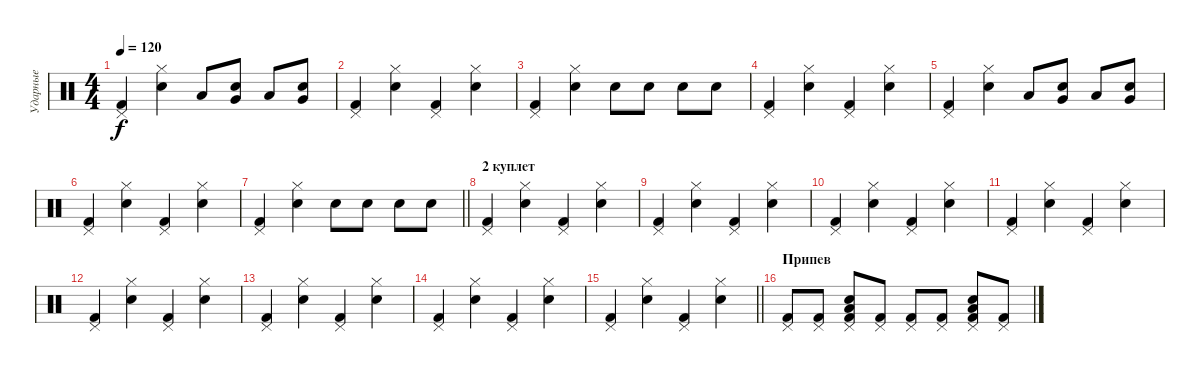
\track ("Ударные" "Ударные") {instrument percussion}
\staff {score}
\articulation defaults
\ts (4 4)
\tempo 120
\clef neutral
\ks c
("Pedal Hi-Hat (hit)" "Kick (hit) 2").4{dy f} ("Hi-Hat (closed)" "Snare (hit) 2").4 "Low Tom (hit)".8 ("Snare (hit) 2" "Very Low Tom (hit)").8 "Low Tom (hit)".8 ("Snare (hit) 2" "Very Low Tom (hit)").8 |
("Pedal Hi-Hat (hit)" "Kick (hit) 2").4 ("Hi-Hat (closed)" "Snare (hit) 2").4 ("Pedal Hi-Hat (hit)" "Kick (hit) 2").4 ("Hi-Hat (closed)" "Snare (hit) 2").4 |
("Pedal Hi-Hat (hit)" "Kick (hit) 2").4 ("Hi-Hat (closed)" "Snare (hit) 2").4 "Snare (hit) 2".8 "Snare (hit) 2".8 "Snare (hit) 2".8 "Snare (hit) 2".8 |
("Pedal Hi-Hat (hit)" "Kick (hit) 2").4 ("Hi-Hat (closed)" "Snare (hit) 2").4 ("Pedal Hi-Hat (hit)" "Kick (hit) 2").4 ("Hi-Hat (closed)" "Snare (hit) 2").4 |
("Pedal Hi-Hat (hit)" "Kick (hit) 2").4 ("Hi-Hat (closed)" "Snare (hit) 2").4 "Low Tom (hit)".8 ("Snare (hit) 2" "Very Low Tom (hit)").8 "Low Tom (hit)".8 ("Snare (hit) 2" "Very Low Tom (hit)").8 |
("Pedal Hi-Hat (hit)" "Kick (hit) 2").4 ("Hi-Hat (closed)" "Snare (hit) 2").4 ("Pedal Hi-Hat (hit)" "Kick (hit) 2").4 ("Hi-Hat (closed)" "Snare (hit) 2").4 |
\barLineRight lightlight
("Pedal Hi-Hat (hit)" "Kick (hit) 2").4 ("Hi-Hat (closed)" "Snare (hit) 2").4 "Snare (hit) 2".8 "Snare (hit) 2".8 "Snare (hit) 2".8 "Snare (hit) 2".8 |
\section ("" "2 куплет")
("Pedal Hi-Hat (hit)" "Kick (hit) 2").4 ("Hi-Hat (closed)" "Snare (hit) 2").4 ("Pedal Hi-Hat (hit)" "Kick (hit) 2").4 ("Hi-Hat (closed)" "Snare (hit) 2").4 |
("Pedal Hi-Hat (hit)" "Kick (hit) 2").4 ("Hi-Hat (closed)" "Snare (hit) 2").4 ("Pedal Hi-Hat (hit)" "Kick (hit) 2").4 ("Hi-Hat (closed)" "Snare (hit) 2").4 |
("Pedal Hi-Hat (hit)" "Kick (hit) 2").4 ("Hi-Hat (closed)" "Snare (hit) 2").4 ("Pedal Hi-Hat (hit)" "Kick (hit) 2").4 ("Hi-Hat (closed)" "Snare (hit) 2").4 |
("Pedal Hi-Hat (hit)" "Kick (hit) 2").4 ("Hi-Hat (closed)" "Snare (hit) 2").4 ("Pedal Hi-Hat (hit)" "Kick (hit) 2").4 ("Hi-Hat (closed)" "Snare (hit) 2").4 |
("Pedal Hi-Hat (hit)" "Kick (hit) 2").4 ("Hi-Hat (closed)" "Snare (hit) 2").4 ("Pedal Hi-Hat (hit)" "Kick (hit) 2").4 ("Hi-Hat (closed)" "Snare (hit) 2").4 |
("Pedal Hi-Hat (hit)" "Kick (hit) 2").4 ("Hi-Hat (closed)" "Snare (hit) 2").4 ("Pedal Hi-Hat (hit)" "Kick (hit) 2").4 ("Hi-Hat (closed)" "Snare (hit) 2").4 |
("Pedal Hi-Hat (hit)" "Kick (hit) 2").4 ("Hi-Hat (closed)" "Snare (hit) 2").4 ("Pedal Hi-Hat (hit)" "Kick (hit) 2").4 ("Hi-Hat (closed)" "Snare (hit) 2").4 |
\barLineRight lightlight
("Pedal Hi-Hat (hit)" "Kick (hit) 2").4 ("Hi-Hat (closed)" "Snare (hit) 2").4 ("Pedal Hi-Hat (hit)" "Kick (hit) 2").4 ("Hi-Hat (closed)" "Snare (hit) 2").4 |
\section ("" "Припев")
("Pedal Hi-Hat (hit)" "Kick (hit) 2").8 ("Pedal Hi-Hat (hit)" "Kick (hit) 2").8 ("Pedal Hi-Hat (hit)" "Snare (hit) 2" "Low Tom (hit)" "Kick (hit) 2").8{bd 60} ("Pedal Hi-Hat (hit)" "Kick (hit) 2").8 ("Pedal Hi-Hat (hit)" "Kick (hit) 2").8 ("Pedal Hi-Hat (hit)" "Kick (hit) 2").8 ("Pedal Hi-Hat (hit)" "Snare (hit) 2" "Low Tom (hit)" "Kick (hit) 2").8{bd 60} ("Pedal Hi-Hat (hit)" "Kick (hit) 2").8
